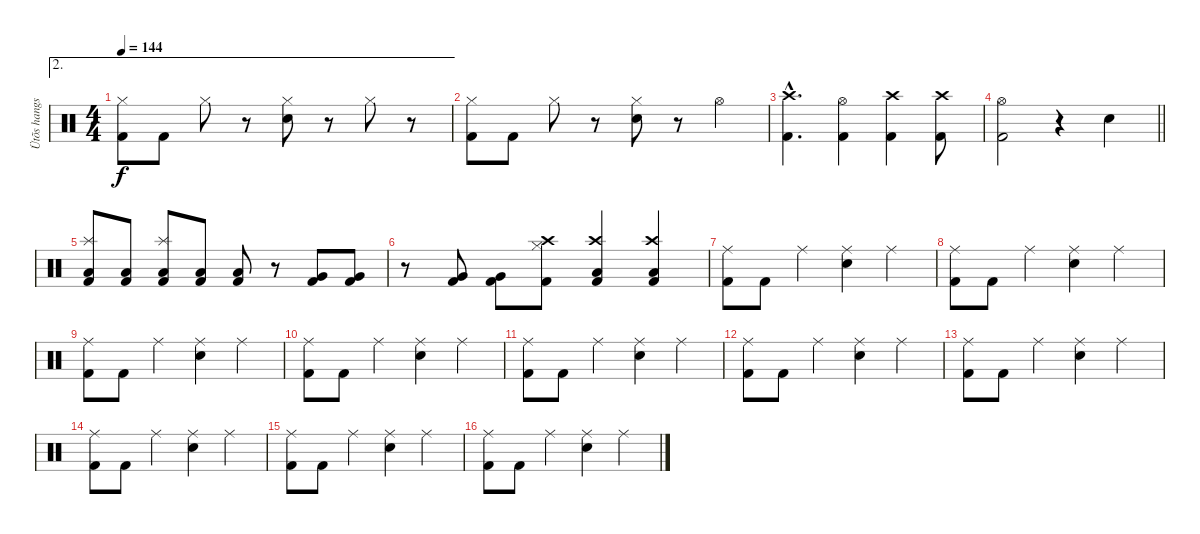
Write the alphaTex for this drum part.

\track ("Ütõs hangszer" "Ütõs hangs") {instrument percussion}
\staff {score}
\articulation defaults
\ae 2
\ts (4 4)
\tempo 144
\clef neutral
\ks c
("Hi-Hat (closed)" "Kick (hit) 2").8{dy f} "Kick (hit) 2".8 "Hi-Hat (closed)".8 r.8 ("Hi-Hat (closed)" "Snare (hit) 2").8 r.8 "Hi-Hat (closed)".8 r.8 |
("Hi-Hat (closed)" "Kick (hit) 2").8 "Kick (hit) 2".8 "Hi-Hat (closed)".8 r.8 ("Hi-Hat (closed)" "Snare (hit) 2").8 r.8 "Hi-Hat (open)".4 |
("Crash high (hit)"{hac} "Kick (hit) 2"{hac}).4{d} ("Hi-Hat (open)" "Kick (hit) 2").4 ("Crash high (hit)" "Kick (hit) 2").4 ("Crash high (hit)" "Kick (hit) 2").8 |
\barLineRight lightlight
("Hi-Hat (open)" "Kick (hit) 2").2 r.4 "Snare (hit) 2".4 |
("Splash (hit)" "Low Floor Tom (hit)" "Kick (hit) 2").8 ("Low Floor Tom (hit)" "Kick (hit) 2").8 ("Splash (hit)" "Low Floor Tom (hit)" "Kick (hit) 2").8 ("Low Floor Tom (hit)" "Kick (hit) 2").8 ("Low Floor Tom (hit)" "Kick (hit) 2").8 r.8 ("Very Low Tom (hit)" "Kick (hit) 2").8 ("Very Low Tom (hit)" "Kick (hit) 2").8 |
r.8 ("Very Low Tom (hit)" "Kick (hit) 2").8 ("Very Low Tom (hit)" "Kick (hit) 2").8 ("Hi-Hat (closed)" "Crash high (hit)" "Kick (hit) 2").8 ("Crash high (hit)" "Low Floor Tom (hit)" "Kick (hit) 2").4 ("Crash high (hit)" "Low Floor Tom (hit)" "Kick (hit) 2").4 |
("Ride (middle)" "Kick (hit) 2").8 "Kick (hit) 2".8 "Ride (middle)".4 ("Ride (middle)" "Snare (hit) 2").4 "Ride (middle)".4 |
("Ride (middle)" "Kick (hit) 2").8 "Kick (hit) 2".8 "Ride (middle)".4 ("Ride (middle)" "Snare (hit) 2").4 "Ride (middle)".4 |
("Ride (middle)" "Kick (hit) 2").8 "Kick (hit) 2".8 "Ride (middle)".4 ("Ride (middle)" "Snare (hit) 2").4 "Ride (middle)".4 |
("Ride (middle)" "Kick (hit) 2").8 "Kick (hit) 2".8 "Ride (middle)".4 ("Ride (middle)" "Snare (hit) 2").4 "Ride (middle)".4 |
("Ride (middle)" "Kick (hit) 2").8 "Kick (hit) 2".8 "Ride (middle)".4 ("Ride (middle)" "Snare (hit) 2").4 "Ride (middle)".4 |
("Ride (middle)" "Kick (hit) 2").8 "Kick (hit) 2".8 "Ride (middle)".4 ("Ride (middle)" "Snare (hit) 2").4 "Ride (middle)".4 |
("Ride (middle)" "Kick (hit) 2").8 "Kick (hit) 2".8 "Ride (middle)".4 ("Ride (middle)" "Snare (hit) 2").4 "Ride (middle)".4 |
("Ride (middle)" "Kick (hit) 2").8 "Kick (hit) 2".8 "Ride (middle)".4 ("Ride (middle)" "Snare (hit) 2").4 "Ride (middle)".4 |
("Ride (middle)" "Kick (hit) 2").8 "Kick (hit) 2".8 "Ride (middle)".4 ("Ride (middle)" "Snare (hit) 2").4 "Ride (middle)".4 |
("Ride (middle)" "Kick (hit) 2").8 "Kick (hit) 2".8 "Ride (middle)".4 ("Ride (middle)" "Snare (hit) 2").4 "Ride (middle)".4
